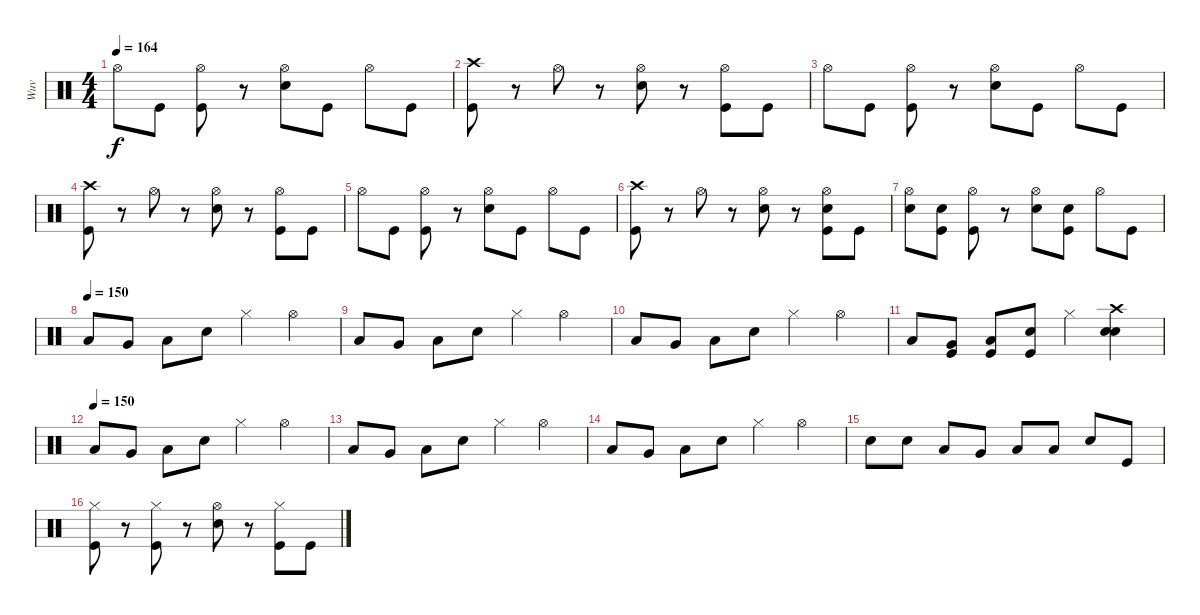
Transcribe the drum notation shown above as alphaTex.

\track ("Wuv" "Wuv") {instrument percussion}
\staff {score}
\articulation defaults
\ts (4 4)
\tempo 164
\clef neutral
\ks c "Hi-Hat (open)".8{dy f} "Kick (hit)".8
("Hi-Hat (open)" "Kick (hit)").8 r.8 ("Hi-Hat (open)" "Snare (hit) 2").8 "Kick (hit)".8 "Hi-Hat (open)".8 "Kick (hit)".8 |
("Crash high (hit)" "Kick (hit)").8 r.8 "Hi-Hat (open)".8 r.8 ("Hi-Hat (open)" "Snare (hit) 2").8 r.8 ("Hi-Hat (open)" "Kick (hit)").8 "Kick (hit)".8 |
"Hi-Hat (open)".8 "Kick (hit)".8 ("Hi-Hat (open)" "Kick (hit)").8 r.8 ("Hi-Hat (open)" "Snare (hit) 2").8 "Kick (hit)".8 "Hi-Hat (open)".8 "Kick (hit)".8 |
("Crash high (hit)" "Kick (hit)").8 r.8 "Hi-Hat (open)".8 r.8 ("Hi-Hat (open)" "Snare (hit) 2").8 r.8 ("Hi-Hat (open)" "Kick (hit)").8 "Kick (hit)".8 |
"Hi-Hat (open)".8 "Kick (hit)".8 ("Hi-Hat (open)" "Kick (hit)").8 r.8 ("Hi-Hat (open)" "Snare (hit) 2").8 "Kick (hit)".8 "Hi-Hat (open)".8 "Kick (hit)".8 |
("Crash high (hit)" "Kick (hit)").8 r.8 "Hi-Hat (open)".8 r.8 ("Hi-Hat (open)" "Snare (hit) 2").8 r.8 ("Hi-Hat (open)" "Snare (hit) 2" "Kick (hit)").8 "Kick (hit)".8 |
("Hi-Hat (open)" "Snare (hit) 2").8 ("Snare (hit) 2" "Kick (hit)").8 ("Hi-Hat (open)" "Kick (hit)").8 r.8 ("Hi-Hat (open)" "Snare (hit) 2").8 ("Snare (hit) 2" "Kick (hit)").8 "Hi-Hat (open)".8 "Kick (hit)".8 |
\tempo (150)
"Low Tom (hit)".8 "Very Low Tom (hit)".8 "Low Floor Tom (hit)".8 "Snare (hit) 2".8 "Hi-Hat (closed)".4 "Hi-Hat (open)".4 |
"Low Tom (hit)".8 "Very Low Tom (hit)".8 "Low Floor Tom (hit)".8 "Snare (hit) 2".8 "Hi-Hat (closed)".4 "Hi-Hat (open)".4 |
"Low Tom (hit)".8 "Very Low Tom (hit)".8 "Low Floor Tom (hit)".8 "Snare (hit) 2".8 "Hi-Hat (closed)".4 "Hi-Hat (open)".4 |
"Low Tom (hit)".8 ("Very Low Tom (hit)" "Kick (hit)").8 ("Low Floor Tom (hit)" "Kick (hit)").8 ("Snare (hit) 2" "Kick (hit)").8 "Hi-Hat (closed)".4 ("Crash high (hit)" "Snare (hit) 2" "Snare (hit) 2").4 |
\tempo (150)
"Low Tom (hit)".8 "Very Low Tom (hit)".8 "Low Floor Tom (hit)".8 "Snare (hit) 2".8 "Hi-Hat (closed)".4 "Hi-Hat (open)".4 |
"Low Tom (hit)".8 "Very Low Tom (hit)".8 "Low Floor Tom (hit)".8 "Snare (hit) 2".8 "Hi-Hat (closed)".4 "Hi-Hat (open)".4 |
"Low Tom (hit)".8 "Very Low Tom (hit)".8 "Low Floor Tom (hit)".8 "Snare (hit) 2".8 "Hi-Hat (closed)".4 "Hi-Hat (open)".4 |
"Snare (hit) 2".8 "Snare (hit) 2".8 "Low Tom (hit)".8 "Very Low Tom (hit)".8 "Low Floor Tom (hit)".8 "Low Floor Tom (hit)".8 "Snare (hit) 2".8 "Kick (hit)".8 |
("Hi-Hat (closed)" "Kick (hit)").8 r.8 ("Hi-Hat (closed)" "Kick (hit)").8 r.8 ("Hi-Hat (open)" "Snare (hit) 2").8 r.8 ("Hi-Hat (closed)" "Kick (hit)").8 "Kick (hit)".8
